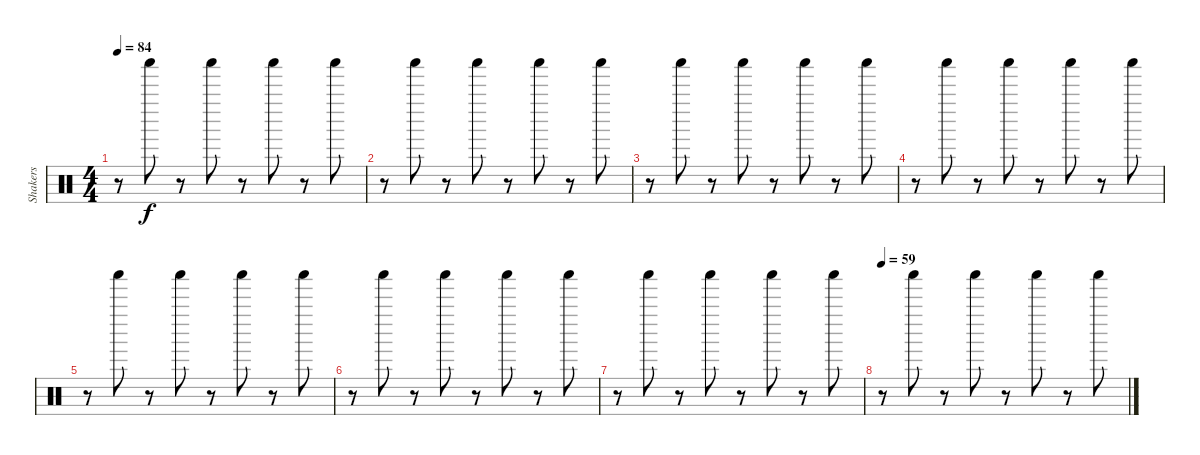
\track ("Shakers" "Shakers") {instrument percussion}
\staff {score}
\articulation defaults
\ts (4 4)
\tempo 84
\clef neutral
\ks c
r.8{dy f} "Shaker (hit)".8 r.8 "Shaker (hit)".8 r.8 "Shaker (hit)".8 r.8 "Shaker (hit)".8 |
r.8 "Shaker (hit)".8 r.8 "Shaker (hit)".8 r.8 "Shaker (hit)".8 r.8 "Shaker (hit)".8 |
r.8 "Shaker (hit)".8 r.8 "Shaker (hit)".8 r.8 "Shaker (hit)".8 r.8 "Shaker (hit)".8 |
r.8 "Shaker (hit)".8 r.8 "Shaker (hit)".8 r.8 "Shaker (hit)".8 r.8 "Shaker (hit)".8 |
r.8 "Shaker (hit)".8 r.8 "Shaker (hit)".8 r.8 "Shaker (hit)".8 r.8 "Shaker (hit)".8 |
r.8 "Shaker (hit)".8 r.8 "Shaker (hit)".8 r.8 "Shaker (hit)".8 r.8 "Shaker (hit)".8 |
r.8 "Shaker (hit)".8 r.8 "Shaker (hit)".8 r.8 "Shaker (hit)".8 r.8 "Shaker (hit)".8 |
\tempo 59
r.8 "Shaker (hit)".8 r.8 "Shaker (hit)".8 r.8 "Shaker (hit)".8 r.8 "Shaker (hit)".8
